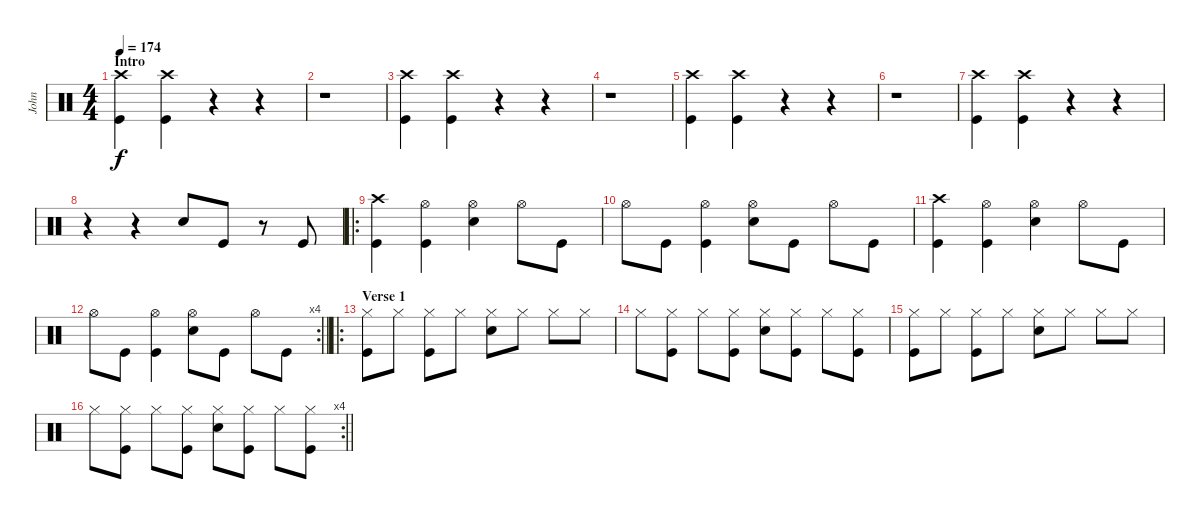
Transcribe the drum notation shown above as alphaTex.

\track ("John" "John") {instrument percussion}
\staff {score}
\articulation defaults
\ts (4 4)
\section ("" "Intro")
\tempo 174
\clef neutral
\ks c
("Crash high (hit)" "Kick (hit)").4{dy f} ("Crash high (hit)" "Kick (hit)").4 r.4 r.4 |
r.1 |
("Crash high (hit)" "Kick (hit)").4 ("Crash high (hit)" "Kick (hit)").4 r.4 r.4 |
r.1 |
("Crash high (hit)" "Kick (hit)").4 ("Crash high (hit)" "Kick (hit)").4 r.4 r.4 |
r.1 |
("Crash high (hit)" "Kick (hit)").4 ("Crash high (hit)" "Kick (hit)").4 r.4 r.4 |
r.4 r.4 "Snare (hit) 2".8 "Kick (hit)".8 r.8 "Kick (hit)".8 |
\ro
("Kick (hit)" "Crash high (hit)").4 ("Hi-Hat (open)" "Kick (hit)").4 ("Hi-Hat (open)" "Snare (hit) 2").4 "Hi-Hat (open)".8 "Kick (hit)".8 |
"Hi-Hat (open)".8 "Kick (hit)".8 ("Hi-Hat (open)" "Kick (hit)").4 ("Hi-Hat (open)" "Snare (hit) 2").8 "Kick (hit)".8 "Hi-Hat (open)".8 "Kick (hit)".8 |
("Kick (hit)" "Crash high (hit)").4 ("Hi-Hat (open)" "Kick (hit)").4 ("Hi-Hat (open)" "Snare (hit) 2").4 "Hi-Hat (open)".8 "Kick (hit)".8 |
\rc 4
\barLineRight lightlight "Hi-Hat (open)".8 "Kick (hit)".8
("Hi-Hat (open)" "Kick (hit)").4 ("Hi-Hat (open)" "Snare (hit) 2").8 "Kick (hit)".8 "Hi-Hat (open)".8 "Kick (hit)".8 |
\ro
\section ("" "Verse 1")
("Hi-Hat (closed)" "Kick (hit)").8 "Hi-Hat (closed)".8 ("Hi-Hat (closed)" "Kick (hit)").8 "Hi-Hat (closed)".8 ("Hi-Hat (closed)" "Snare (hit) 2").8 "Hi-Hat (closed)".8 "Hi-Hat (closed)".8 "Hi-Hat (closed)".8 |
"Hi-Hat (closed)".8 ("Hi-Hat (closed)" "Kick (hit)").8 "Hi-Hat (closed)".8 ("Hi-Hat (closed)" "Kick (hit)").8 ("Hi-Hat (closed)" "Snare (hit) 2").8 ("Hi-Hat (closed)" "Kick (hit)").8 "Hi-Hat (closed)".8 ("Hi-Hat (closed)" "Kick (hit)").8 |
("Hi-Hat (closed)" "Kick (hit)").8 "Hi-Hat (closed)".8 ("Hi-Hat (closed)" "Kick (hit)").8 "Hi-Hat (closed)".8 ("Hi-Hat (closed)" "Snare (hit) 2").8 "Hi-Hat (closed)".8 "Hi-Hat (closed)".8 "Hi-Hat (closed)".8 |
\rc 4
\barLineRight lightlight "Hi-Hat (closed)".8
("Hi-Hat (closed)" "Kick (hit)").8 "Hi-Hat (closed)".8 ("Hi-Hat (closed)" "Kick (hit)").8 ("Hi-Hat (closed)" "Snare (hit) 2").8 ("Hi-Hat (closed)" "Kick (hit)").8 "Hi-Hat (closed)".8 ("Hi-Hat (closed)" "Kick (hit)").8
